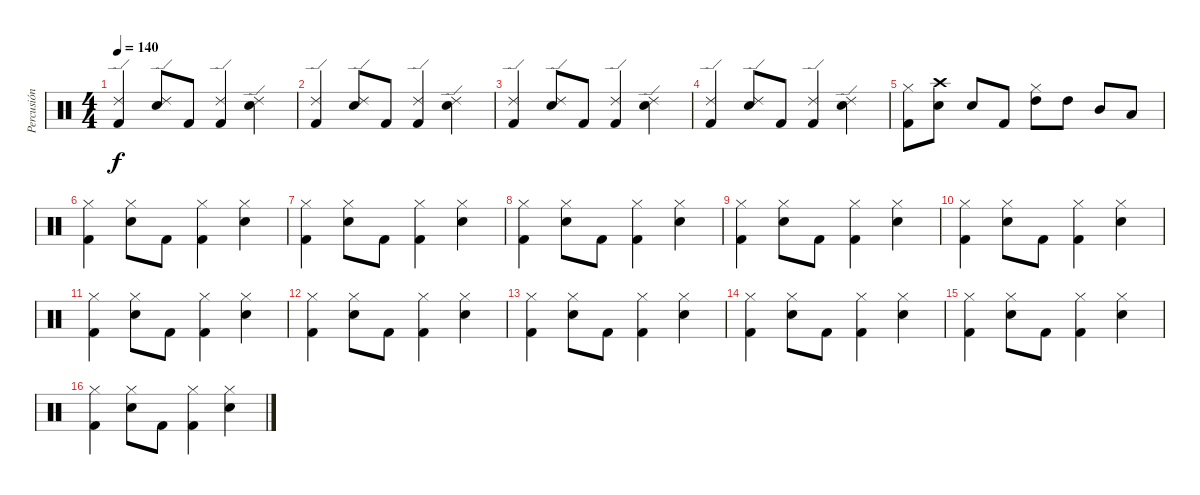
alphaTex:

\track ("Percusión" "Percusión") {instrument percussion}
\staff {score}
\articulation defaults
\ts (4 4)
\tempo 140
\clef neutral
\ks c
("Ride (edge) 2" "Kick (hit) 2").4{dy f} ("Ride (edge) 2" "Snare (hit) 2").8 "Kick (hit) 2".8 ("Ride (edge) 2" "Kick (hit) 2").4 ("Ride (edge) 2" "Snare (hit) 2").4 |
("Ride (edge) 2" "Kick (hit) 2").4 ("Ride (edge) 2" "Snare (hit) 2").8 "Kick (hit) 2".8 ("Ride (edge) 2" "Kick (hit) 2").4 ("Ride (edge) 2" "Snare (hit) 2").4 |
("Ride (edge) 2" "Kick (hit) 2").4 ("Ride (edge) 2" "Snare (hit) 2").8 "Kick (hit) 2".8 ("Ride (edge) 2" "Kick (hit) 2").4 ("Ride (edge) 2" "Snare (hit) 2").4 |
("Ride (edge) 2" "Kick (hit) 2").4 ("Ride (edge) 2" "Snare (hit) 2").8 "Kick (hit) 2".8 ("Ride (edge) 2" "Kick (hit) 2").4 ("Ride (edge) 2" "Snare (hit) 2").4 |
("Hi-Hat (closed)" "Kick (hit) 2").8 ("Crash high (hit)" "Snare (hit) 2").8 "Snare (hit) 2".8 "Kick (hit) 2".8 ("Hi-Hat (closed)" "High Tom (hit)").8 "High Tom (hit)".8 "Mid Tom (hit)".8 "Low Tom (hit)".8 |
("Hi-Hat (closed)" "Kick (hit) 2").4 ("Hi-Hat (closed)" "Snare (hit) 2").8 "Kick (hit) 2".8 ("Hi-Hat (closed)" "Kick (hit) 2").4 ("Hi-Hat (closed)" "Snare (hit) 2").4 |
("Hi-Hat (closed)" "Kick (hit) 2").4 ("Hi-Hat (closed)" "Snare (hit) 2").8 "Kick (hit) 2".8 ("Hi-Hat (closed)" "Kick (hit) 2").4 ("Hi-Hat (closed)" "Snare (hit) 2").4 |
("Hi-Hat (closed)" "Kick (hit) 2").4 ("Hi-Hat (closed)" "Snare (hit) 2").8 "Kick (hit) 2".8 ("Hi-Hat (closed)" "Kick (hit) 2").4 ("Hi-Hat (closed)" "Snare (hit) 2").4 |
("Hi-Hat (closed)" "Kick (hit) 2").4 ("Hi-Hat (closed)" "Snare (hit) 2").8 "Kick (hit) 2".8 ("Hi-Hat (closed)" "Kick (hit) 2").4 ("Hi-Hat (closed)" "Snare (hit) 2").4 |
("Hi-Hat (closed)" "Kick (hit) 2").4 ("Hi-Hat (closed)" "Snare (hit) 2").8 "Kick (hit) 2".8 ("Hi-Hat (closed)" "Kick (hit) 2").4 ("Hi-Hat (closed)" "Snare (hit) 2").4 |
("Hi-Hat (closed)" "Kick (hit) 2").4 ("Hi-Hat (closed)" "Snare (hit) 2").8 "Kick (hit) 2".8 ("Hi-Hat (closed)" "Kick (hit) 2").4 ("Hi-Hat (closed)" "Snare (hit) 2").4 |
("Hi-Hat (closed)" "Kick (hit) 2").4 ("Hi-Hat (closed)" "Snare (hit) 2").8 "Kick (hit) 2".8 ("Hi-Hat (closed)" "Kick (hit) 2").4 ("Hi-Hat (closed)" "Snare (hit) 2").4 |
("Hi-Hat (closed)" "Kick (hit) 2").4 ("Hi-Hat (closed)" "Snare (hit) 2").8 "Kick (hit) 2".8 ("Hi-Hat (closed)" "Kick (hit) 2").4 ("Hi-Hat (closed)" "Snare (hit) 2").4 |
("Hi-Hat (closed)" "Kick (hit) 2").4 ("Hi-Hat (closed)" "Snare (hit) 2").8 "Kick (hit) 2".8 ("Hi-Hat (closed)" "Kick (hit) 2").4 ("Hi-Hat (closed)" "Snare (hit) 2").4 |
("Hi-Hat (closed)" "Kick (hit) 2").4 ("Hi-Hat (closed)" "Snare (hit) 2").8 "Kick (hit) 2".8 ("Hi-Hat (closed)" "Kick (hit) 2").4 ("Hi-Hat (closed)" "Snare (hit) 2").4 |
("Hi-Hat (closed)" "Kick (hit) 2").4 ("Hi-Hat (closed)" "Snare (hit) 2").8 "Kick (hit) 2".8 ("Hi-Hat (closed)" "Kick (hit) 2").4 ("Hi-Hat (closed)" "Snare (hit) 2").4
